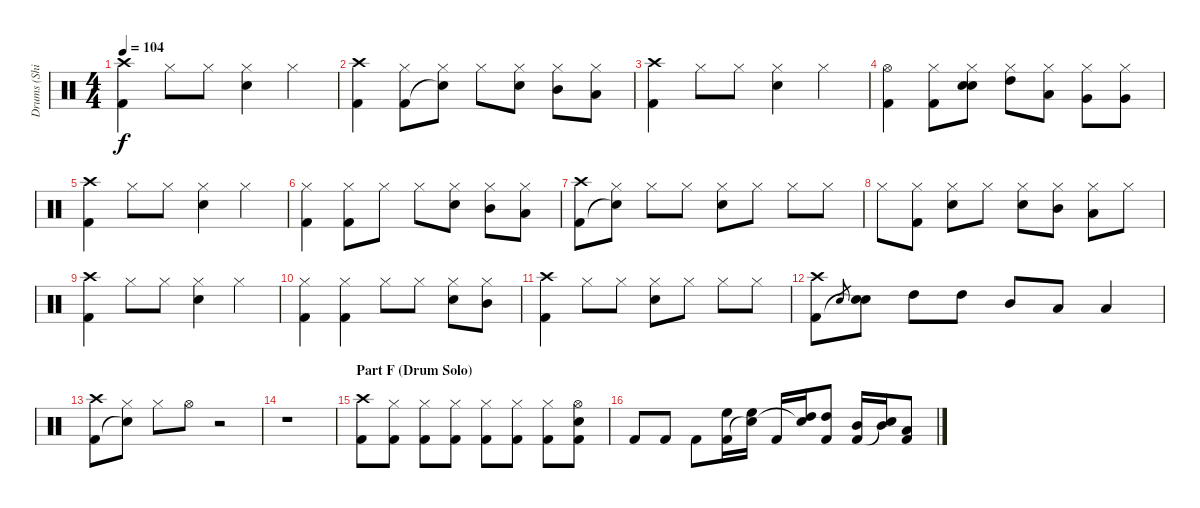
\track ("Drums (Shinya)" "Drums (Shi") {instrument percussion}
\staff {score}
\articulation defaults
\ts (4 4)
\tempo 104
\clef neutral
\ks c
("Crash high (hit)" "Kick (hit) 2").4{dy f} "Hi-Hat (closed)".8 "Hi-Hat (closed)".8 ("Hi-Hat (closed)" "Electric Snare (hit)").4 "Hi-Hat (closed)".4 |
("Crash high (hit)" "Kick (hit) 2").4 ("Hi-Hat (closed)" "Kick (hit) 2").8 ("Hi-Hat (closed)" "Snare (hit)"{t}).8 "Hi-Hat (closed)".8 ("Hi-Hat (closed)" "Electric Snare (hit)").8 ("Hi-Hat (closed)" "Mid Tom (hit)").8 ("Hi-Hat (closed)" "Low Tom (hit)").8 |
("Crash high (hit)" "Kick (hit) 2").4 "Hi-Hat (closed)".8 "Hi-Hat (closed)".8 ("Hi-Hat (closed)" "Electric Snare (hit)").4 "Hi-Hat (closed)".4 |
("Hi-Hat (open)" "Kick (hit) 2").4 ("Hi-Hat (closed)" "Kick (hit) 2").8 ("Hi-Hat (closed)" "Electric Snare (hit)" "Snare (hit)").8 ("Hi-Hat (closed)" "High Tom (hit)").8 ("Hi-Hat (closed)" "Low Tom (hit)").8 ("Hi-Hat (closed)" "Very Low Tom (hit)").8 ("Hi-Hat (closed)" "Very Low Tom (hit)").8 |
("Crash high (hit)" "Kick (hit) 2").4 "Hi-Hat (closed)".8 "Hi-Hat (closed)".8 ("Hi-Hat (closed)" "Electric Snare (hit)").4 "Hi-Hat (closed)".4 |
("Hi-Hat (closed)" "Kick (hit) 2").4 ("Hi-Hat (closed)" "Kick (hit) 2").8 "Hi-Hat (closed)".8 "Hi-Hat (closed)".8 ("Hi-Hat (closed)" "Electric Snare (hit)").8 ("Hi-Hat (closed)" "Mid Tom (hit)").8 ("Hi-Hat (closed)" "Low Tom (hit)").8 |
("Crash high (hit)" "Kick (hit) 2").8 ("Hi-Hat (closed)" "Snare (hit)"{t}).8 "Hi-Hat (closed)".8 "Hi-Hat (closed)".8 ("Hi-Hat (closed)" "Electric Snare (hit)").8 "Hi-Hat (closed)".8 "Hi-Hat (closed)".8 "Hi-Hat (closed)".8 |
"Hi-Hat (closed)".8 ("Hi-Hat (closed)" "Kick (hit) 2").8 ("Hi-Hat (closed)" "Electric Snare (hit)").8 "Hi-Hat (closed)".8 ("Hi-Hat (closed)" "Electric Snare (hit)").8 ("Hi-Hat (closed)" "Mid Tom (hit)").8 ("Hi-Hat (closed)" "Low Tom (hit)").8 "Hi-Hat (closed)".8 |
("Crash high (hit)" "Kick (hit) 2").4 "Hi-Hat (closed)".8 "Hi-Hat (closed)".8 ("Hi-Hat (closed)" "Electric Snare (hit)").4 "Hi-Hat (closed)".4 |
("Hi-Hat (closed)" "Kick (hit) 2").4 ("Hi-Hat (closed)" "Kick (hit) 2").4 "Hi-Hat (closed)".8 "Hi-Hat (closed)".8 ("Hi-Hat (closed)" "Electric Snare (hit)").8 ("Hi-Hat (closed)" "Mid Tom (hit)").8 |
("Crash high (hit)" "Kick (hit) 2").4 "Hi-Hat (closed)".8 "Hi-Hat (closed)".8 ("Hi-Hat (closed)" "Electric Snare (hit)").8 "Hi-Hat (closed)".8 "Hi-Hat (closed)".8 "Hi-Hat (closed)".8 |
("Crash high (hit)" "Kick (hit) 2").8 "Electric Snare (hit)".8{gr} ("Electric Snare (hit)" "Snare (hit)"{t}).8 "High Tom (hit)".8 "High Tom (hit)".8 "Mid Tom (hit)".8 "Low Tom (hit)".8 "Low Tom (hit)".4 |
("Crash high (hit)" "Kick (hit) 2").8 ("Hi-Hat (closed)" "Snare (hit)"{t}).8 "Hi-Hat (closed)".8 "Hi-Hat (open)".8 r.2 |
r.1 |
\section ("" "Part F (Drum Solo)")
("Crash high (hit)" "Kick (hit) 2").8 ("Hi-Hat (closed)" "Kick (hit) 2").8 ("Hi-Hat (closed)" "Kick (hit) 2").8 ("Hi-Hat (closed)" "Kick (hit) 2").8 ("Hi-Hat (closed)" "Kick (hit) 2").8 ("Hi-Hat (closed)" "Kick (hit) 2").8 ("Hi-Hat (closed)" "Kick (hit) 2").8 ("Hi-Hat (open)" "Electric Snare (hit)" "Kick (hit) 2").8 |
"Kick (hit) 2".8 "Kick (hit) 2".8 "Kick (hit) 2".8 ("High Floor Tom (hit)" "Kick (hit) 2").16 ("High Floor Tom (hit)" "Snare (hit)"{t}).16 "Kick (hit) 2".16 ("High Tom (hit)" "Snare (hit)"{t}).16 ("High Tom (hit)" "Kick (hit) 2").8 ("Mid Tom (hit)" "Kick (hit) 2").16 ("Mid Tom (hit)" "Snare (hit)"{t}).16 ("Low Tom (hit)" "Kick (hit) 2").8
